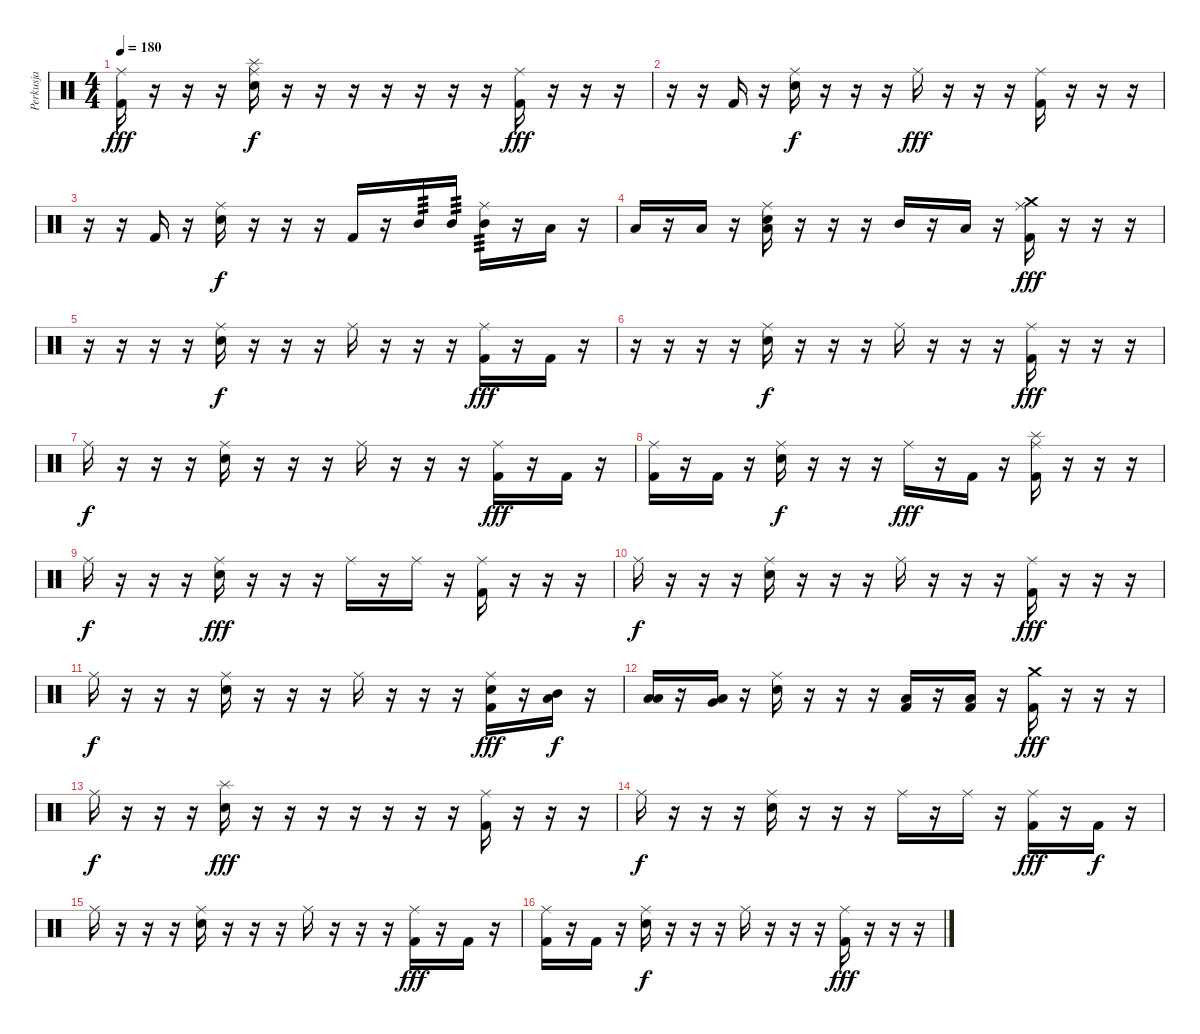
\track ("Perkusja" "Perkusja") {instrument percussion}
\staff {score}
\articulation defaults
\ts (4 4)
\tempo 180
\clef neutral
\ks c
("Ride (middle)" "Kick (hit) 2").16{dy fff} r.16 r.16 r.16 ("Snare (hit) 2" "Splash (hit)" "Ride (middle)").16{dy f} r.16 r.16 r.16 r.16 r.16 r.16 r.16 ("Ride (middle)" "Kick (hit) 2").16{dy fff} r.16 r.16 r.16 |
r.16 r.16 "Kick (hit) 2".16 r.16 ("Snare (hit) 2" "Ride (middle)").16{dy f} r.16 r.16 r.16 "Ride (middle)".16{dy fff} r.16 r.16 r.16 ("Ride (middle)" "Kick (hit) 2").16 r.16 r.16 r.16 |
r.16 r.16 "Kick (hit) 2".16 r.16 ("Snare (hit) 2" "Ride (middle)").16{dy f} r.16 r.16 r.16 "Kick (hit) 2".16 r.16 "Mid Tom (hit)".16{tp 3} "Mid Tom (hit)".16{tp 3} ("Mid Tom (hit)" "Ride (middle)").16{tp 3} r.16 "Low Tom (hit)".16 r.16 |
"Low Tom (hit)".16 r.16 "Low Tom (hit)".16 r.16 ("Snare (hit) 2" "Low Tom (hit)" "Ride (middle)").16 r.16 r.16 r.16 "Mid Tom (hit)".16 r.16 "Low Tom (hit)".16 r.16 ("Crash medium (hit)" "Ride (middle)" "Kick (hit) 2").16{dy fff} r.16 r.16 r.16 |
r.16 r.16 r.16 r.16 ("Snare (hit) 2" "Ride (middle)").16{dy f} r.16 r.16 r.16 "Ride (middle)".16 r.16 r.16 r.16 ("Ride (middle)" "Kick (hit) 2").16{dy fff} r.16 "Kick (hit) 2".16 r.16 |
r.16 r.16 r.16 r.16 ("Snare (hit) 2" "Ride (middle)").16{dy f} r.16 r.16 r.16 "Ride (middle)".16 r.16 r.16 r.16 ("Ride (middle)" "Kick (hit) 2").16{dy fff} r.16 r.16 r.16 |
"Ride (middle)".16{dy f} r.16 r.16 r.16 ("Snare (hit) 2" "Ride (middle)").16 r.16 r.16 r.16 "Ride (middle)".16 r.16 r.16 r.16 ("Ride (middle)" "Kick (hit) 2").16{dy fff} r.16 "Kick (hit) 2".16 r.16 |
("Ride (middle)" "Kick (hit) 2").16 r.16 "Kick (hit) 2".16 r.16 ("Snare (hit) 2" "Ride (middle)").16{dy f} r.16 r.16 r.16 "Ride (middle)".16{dy fff} r.16 "Kick (hit) 2".16 r.16 ("Splash (hit)" "Ride (middle)" "Kick (hit) 2").16 r.16 r.16 r.16 |
"Ride (middle)".16{dy f} r.16 r.16 r.16 ("Snare (hit) 2" "Ride (middle)").16{dy fff} r.16 r.16 r.16 "Ride (middle)".16 r.16 "Ride (middle)".16 r.16 ("Ride (middle)" "Kick (hit) 2").16 r.16 r.16 r.16 |
"Ride (middle)".16{dy f} r.16 r.16 r.16 ("Snare (hit) 2" "Ride (middle)").16 r.16 r.16 r.16 "Ride (middle)".16 r.16 r.16 r.16 ("Ride (middle)" "Kick (hit) 2").16{dy fff} r.16 r.16 r.16 |
"Ride (middle)".16{dy f} r.16 r.16 r.16 ("Snare (hit) 2" "Ride (middle)").16 r.16 r.16 r.16 "Ride (middle)".16 r.16 r.16 r.16 ("Snare (hit) 2" "Ride (middle)" "Kick (hit) 2").16{dy fff} r.16 ("Low Tom (hit)" "Mid Tom (hit)").16{dy f} r.16 |
("Low Tom (hit)" "Low Tom (hit)").16 r.16 ("Low Tom (hit)" "Very Low Tom (hit)").16 r.16 ("Snare (hit) 2" "Ride (middle)").16 r.16 r.16 r.16 ("Low Tom (hit)" "Kick (hit) 2").16 r.16 ("Low Tom (hit)" "Kick (hit) 2").16 r.16 ("Crash medium (hit)" "Kick (hit) 2").16{dy fff} r.16 r.16 r.16 |
"Ride (middle)".16{dy f} r.16 r.16 r.16 ("Snare (hit) 2" "Splash (hit)").16{dy fff} r.16 r.16 r.16 r.16 r.16 r.16 r.16 ("Ride (middle)" "Kick (hit) 2").16 r.16 r.16 r.16 |
"Ride (middle)".16{dy f} r.16 r.16 r.16 ("Snare (hit) 2" "Ride (middle)").16 r.16 r.16 r.16 "Ride (middle)".16 r.16 "Ride (middle)".16 r.16 ("Ride (middle)" "Kick (hit) 2").16{dy fff} r.16 "Kick (hit) 2".16{dy f} r.16 |
"Ride (middle)".16 r.16 r.16 r.16 ("Snare (hit) 2" "Ride (middle)").16 r.16 r.16 r.16 "Ride (middle)".16 r.16 r.16 r.16 ("Ride (middle)" "Kick (hit) 2").16{dy fff} r.16 "Kick (hit) 2".16 r.16 |
("Ride (middle)" "Kick (hit) 2").16 r.16 "Kick (hit) 2".16 r.16 ("Snare (hit) 2" "Ride (middle)").16{dy f} r.16 r.16 r.16 "Ride (middle)".16 r.16 r.16 r.16 ("Ride (middle)" "Kick (hit) 2").16{dy fff} r.16 r.16 r.16
